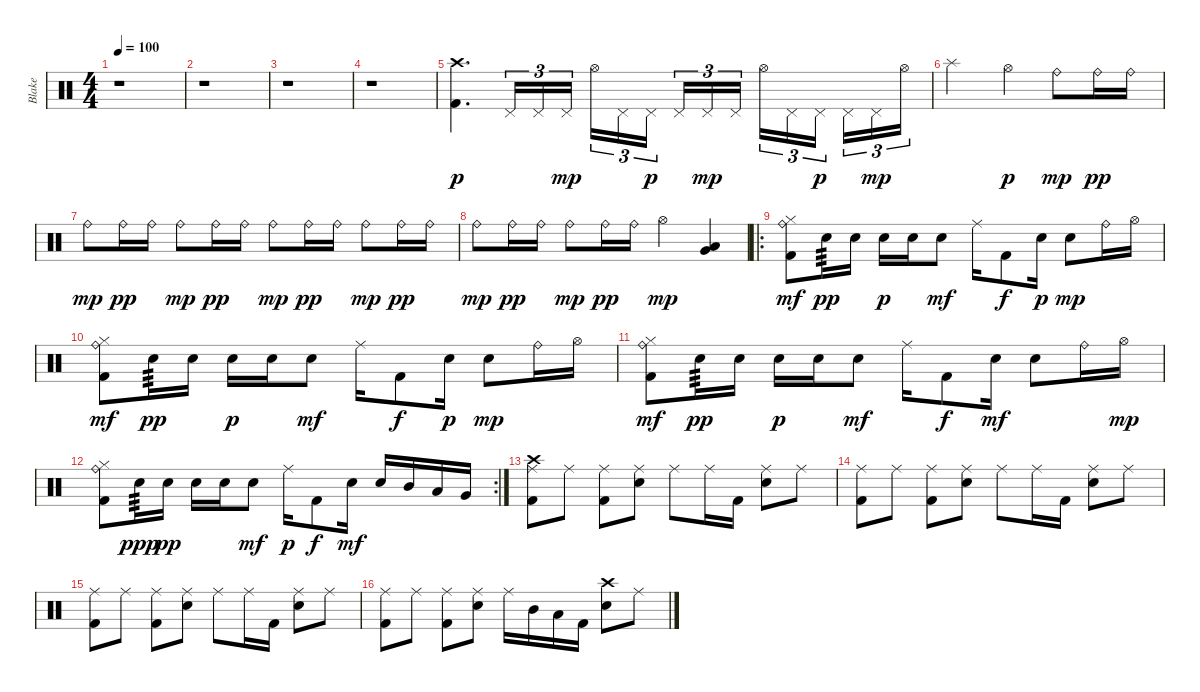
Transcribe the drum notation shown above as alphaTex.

\track ("Blake" "Blake") {instrument percussion}
\staff {score}
\articulation defaults
\ts (4 4)
\tempo 100
\clef neutral
\ks c
r.1{dy f} |
r.1 |
r.1 |
r.1 |
("Crash high (hit)" "Kick (hit) 2").4{d dy p} "Pedal Hi-Hat (hit)".16{tu (3 2)} "Pedal Hi-Hat (hit)".16{tu (3 2)} "Pedal Hi-Hat (hit)".16{tu (3 2) dy mp} "Hi-Hat (open)".16{tu (3 2)} "Pedal Hi-Hat (hit)".16{tu (3 2)} "Pedal Hi-Hat (hit)".16{tu (3 2) dy p beam splitsecondary} "Pedal Hi-Hat (hit)".16{tu (3 2)} "Pedal Hi-Hat (hit)".16{tu (3 2) dy mp} "Pedal Hi-Hat (hit)".16{tu (3 2)} "Hi-Hat (open)".16{tu (3 2)} "Pedal Hi-Hat (hit)".16{tu (3 2)} "Pedal Hi-Hat (hit)".16{tu (3 2) dy p beam splitsecondary} "Pedal Hi-Hat (hit)".16{tu (3 2)} "Pedal Hi-Hat (hit)".16{tu (3 2) dy mp} "Hi-Hat (open)".16{tu (3 2)} |
"Splash (hit)".2 "Hi-Hat (open)".4{dy p} "Ride (bell)".8{dy mp} "Ride (bell)".16{dy pp} "Ride (bell)".16 |
"Ride (bell)".8{dy mp} "Ride (bell)".16{dy pp} "Ride (bell)".16 "Ride (bell)".8{dy mp} "Ride (bell)".16{dy pp} "Ride (bell)".16 "Ride (bell)".8{dy mp} "Ride (bell)".16{dy pp} "Ride (bell)".16 "Ride (bell)".8{dy mp} "Ride (bell)".16{dy pp} "Ride (bell)".16 |
"Ride (bell)".8{dy mp} "Ride (bell)".16{dy pp} "Ride (bell)".16 "Ride (bell)".8{dy mp} "Ride (bell)".16{dy pp} "Ride (bell)".16 "Hi-Hat (open)".4{dy mp} ("Very Low Tom (hit)" "Low Tom (hit)").4 |
\ro
("Ride (bell)" "Hi-Hat (closed)" "Kick (hit) 2").8{dy mf} "Snare (hit) 2".16{tp 3 dy pp} "Snare (hit) 2".16 "Snare (hit) 2".16{dy p} "Snare (hit) 2".16 "Snare (hit) 2".8{dy mf} "Ride (middle)".16 "Kick (hit) 2".8{dy f} "Snare (hit) 2".16{dy p} "Snare (hit) 2".8{dy mp} "Ride (bell)".16 "Hi-Hat (open)".16 |
("Ride (bell)" "Hi-Hat (closed)" "Kick (hit) 2").8{dy mf} "Snare (hit) 2".16{tp 3 dy pp} "Snare (hit) 2".16 "Snare (hit) 2".16{dy p} "Snare (hit) 2".16 "Snare (hit) 2".8{dy mf} "Ride (middle)".16 "Kick (hit) 2".8{dy f} "Snare (hit) 2".16{dy p} "Snare (hit) 2".8{dy mp} "Ride (bell)".16 "Hi-Hat (open)".16 |
("Ride (bell)" "Hi-Hat (closed)" "Kick (hit) 2").8{dy mf} "Snare (hit) 2".16{tp 3 dy pp} "Snare (hit) 2".16 "Snare (hit) 2".16{dy p} "Snare (hit) 2".16 "Snare (hit) 2".8{dy mf} "Ride (middle)".16 "Kick (hit) 2".8{dy f} "Snare (hit) 2".16{dy mf} "Snare (hit) 2".8 "Ride (bell)".16 "Hi-Hat (open)".16{dy mp} |
\rc 2
("Ride (bell)" "Hi-Hat (closed)" "Kick (hit) 2").8 "Snare (hit) 2".16{tp 3 dy ppp} "Snare (hit) 2".16{dy pp} "Snare (hit) 2".16 "Snare (hit) 2".16 "Snare (hit) 2".8{dy mf} "Ride (middle)".16{dy p} "Kick (hit) 2".8{dy f} "Snare (hit) 2".16{dy mf} "Snare (hit) 2".16 "Mid Tom (hit)".16 "Low Tom (hit)".16 "Very Low Tom (hit)".16 |
("Ride (middle)" "Crash high (hit)" "Kick (hit) 2").8 "Ride (middle)".8 ("Ride (middle)" "Kick (hit) 2").8 ("Ride (middle)" "Snare (hit) 2").8 "Ride (middle)".8 "Ride (middle)".16 "Kick (hit) 2".16 ("Ride (middle)" "Snare (hit) 2").8 "Ride (middle)".8 |
("Ride (middle)" "Kick (hit) 2").8 "Ride (middle)".8 ("Ride (middle)" "Kick (hit) 2").8 ("Ride (middle)" "Snare (hit) 2").8 "Ride (middle)".8 "Ride (middle)".16 "Kick (hit) 2".16 ("Ride (middle)" "Snare (hit) 2").8 "Ride (middle)".8 |
("Ride (middle)" "Kick (hit) 2").8 "Ride (middle)".8 ("Ride (middle)" "Kick (hit) 2").8 ("Ride (middle)" "Snare (hit) 2").8 "Ride (middle)".8 "Ride (middle)".16 "Kick (hit) 2".16 ("Ride (middle)" "Snare (hit) 2").8 "Ride (middle)".8 |
("Ride (middle)" "Kick (hit) 2").8 "Ride (middle)".8 ("Ride (middle)" "Kick (hit) 2").8 ("Ride (middle)" "Snare (hit) 2").8 "Ride (middle)".16 "Mid Tom (hit)".16 "Low Tom (hit)".16 "Kick (hit) 2".16 ("Crash high (hit)" "Snare (hit) 2").8 "Ride (middle)".8
